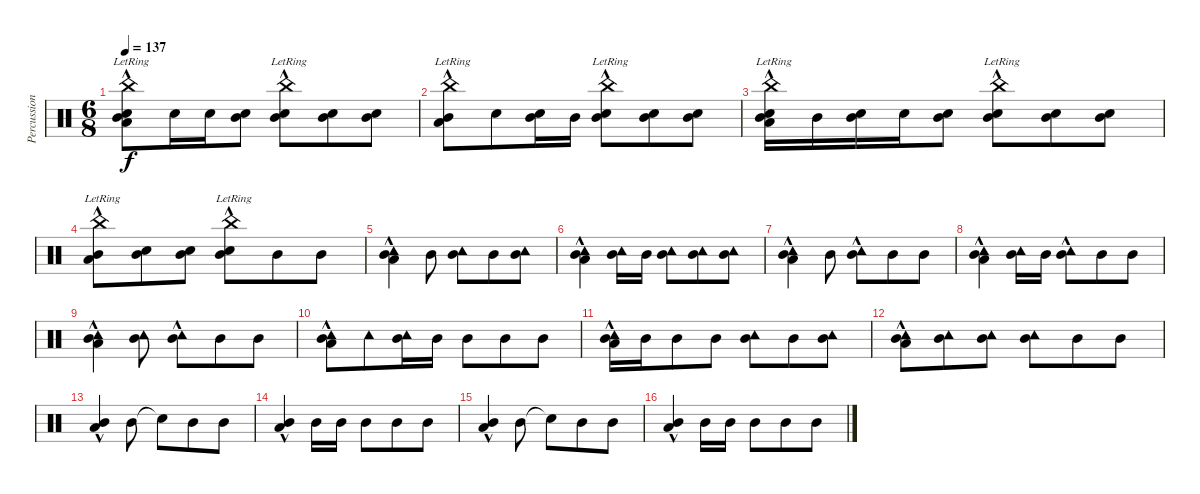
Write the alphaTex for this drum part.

\track ("Percussion" "Percussion") {instrument percussion}
\staff {score}
\articulation defaults
\ts (6 8)
\tempo 137
\clef neutral
\ks c
("China (hit)"{hac lr} "Snare (hit) 2" "Mid Tom (hit)" "Low Floor Tom (hit)"{hac}).8{dy f} "Snare (hit) 2".16 "Snare (hit) 2".16 ("Snare (hit) 2" "Mid Tom (hit)").8 ("China (hit)"{hac lr} "Snare (hit) 2" "Mid Tom (hit)").8 ("Snare (hit) 2" "Mid Tom (hit)").8 ("Snare (hit) 2" "Mid Tom (hit)").8 |
("China (hit)"{hac lr} "Mid Tom (hit)" "Low Floor Tom (hit)"{hac}).8 "Snare (hit) 2".8 ("Snare (hit) 2" "Mid Tom (hit)").16 "Mid Tom (hit)".16 ("China (hit)"{hac lr} "Snare (hit) 2" "Mid Tom (hit)").8 ("Snare (hit) 2" "Mid Tom (hit)").8 ("Snare (hit) 2" "Mid Tom (hit)").8 |
("China (hit)"{hac lr} "Snare (hit) 2" "Mid Tom (hit)" "Low Floor Tom (hit)"{hac}).16 "Mid Tom (hit)".16 ("Snare (hit) 2" "Mid Tom (hit)").16 "Snare (hit) 2".16 ("Snare (hit) 2" "Mid Tom (hit)").8 ("China (hit)"{hac lr} "Snare (hit) 2" "Mid Tom (hit)").8 ("Snare (hit) 2" "Mid Tom (hit)").8 ("Snare (hit) 2" "Mid Tom (hit)").8 |
("China (hit)"{hac lr} "Mid Tom (hit)" "Low Floor Tom (hit)"{hac}).8 ("Snare (hit) 2" "Mid Tom (hit)").8 ("Snare (hit) 2" "Mid Tom (hit)").8 ("China (hit)"{hac lr} "Snare (hit) 2" "Mid Tom (hit)").8 "Mid Tom (hit)".8 "Mid Tom (hit)".8 |
("Tambourine (hit)"{hac} "Mid Tom (hit)" "Low Floor Tom (hit)"{hac}).4 "Mid Tom (hit)".8 ("Tambourine (hit)" "Mid Tom (hit)").8 "Mid Tom (hit)".8 ("Tambourine (hit)" "Mid Tom (hit)").8 |
("Tambourine (hit)" "Mid Tom (hit)" "Low Floor Tom (hit)"{hac}).4 ("Tambourine (hit)" "Mid Tom (hit)").16 "Mid Tom (hit)".16 ("Tambourine (hit)" "Mid Tom (hit)").8 ("Tambourine (hit)" "Mid Tom (hit)").8 ("Tambourine (hit)" "Mid Tom (hit)").8 |
("Tambourine (hit)"{hac} "Mid Tom (hit)" "Low Floor Tom (hit)"{hac}).4 "Mid Tom (hit)".8 ("Tambourine (hit)"{hac} "Mid Tom (hit)").8 "Mid Tom (hit)".8 "Mid Tom (hit)".8 |
("Tambourine (hit)" "Mid Tom (hit)" "Low Floor Tom (hit)"{hac}).4 ("Tambourine (hit)" "Mid Tom (hit)").16 "Mid Tom (hit)".16 ("Tambourine (hit)"{hac} "Mid Tom (hit)").8 "Mid Tom (hit)".8 "Mid Tom (hit)".8 |
("Tambourine (hit)" "Mid Tom (hit)" "Low Floor Tom (hit)"{hac}).4 ("Tambourine (hit)" "Mid Tom (hit)").8 ("Tambourine (hit)"{hac} "Mid Tom (hit)").8 "Mid Tom (hit)".8 "Mid Tom (hit)".8 |
("Tambourine (hit)" "Mid Tom (hit)" "Low Floor Tom (hit)"{hac}).8 "Tambourine (hit)".8 ("Tambourine (hit)" "Mid Tom (hit)").16 "Mid Tom (hit)".16 "Mid Tom (hit)".8 "Mid Tom (hit)".8 "Mid Tom (hit)".8 |
("Tambourine (hit)"{hac} "Mid Tom (hit)" "Low Floor Tom (hit)"{hac}).16 "Mid Tom (hit)".16 "Mid Tom (hit)".8 "Mid Tom (hit)".8 ("Tambourine (hit)" "Mid Tom (hit)").8 "Mid Tom (hit)".8 ("Tambourine (hit)" "Mid Tom (hit)").8 |
("Tambourine (hit)" "Mid Tom (hit)" "Low Floor Tom (hit)"{hac}).8 ("Tambourine (hit)" "Mid Tom (hit)").8 ("Tambourine (hit)" "Mid Tom (hit)").8 ("Tambourine (hit)" "Mid Tom (hit)").8 "Mid Tom (hit)".8 "Mid Tom (hit)".8 |
("Mid Tom (hit)" "Low Floor Tom (hit)"{hac}).4 "Mid Tom (hit)".8 "Snare (hit)"{t}.8 "Mid Tom (hit)".8 "Mid Tom (hit)".8 |
("Mid Tom (hit)" "Low Floor Tom (hit)"{hac}).4 "Mid Tom (hit)".16 "Mid Tom (hit)".16 "Mid Tom (hit)".8 "Mid Tom (hit)".8 "Mid Tom (hit)".8 |
("Mid Tom (hit)" "Low Floor Tom (hit)"{hac}).4 "Mid Tom (hit)".8 "Snare (hit)"{t}.8 "Mid Tom (hit)".8 "Mid Tom (hit)".8 |
("Mid Tom (hit)" "Low Floor Tom (hit)"{hac}).4 "Mid Tom (hit)".16 "Mid Tom (hit)".16 "Mid Tom (hit)".8 "Mid Tom (hit)".8 "Mid Tom (hit)".8
